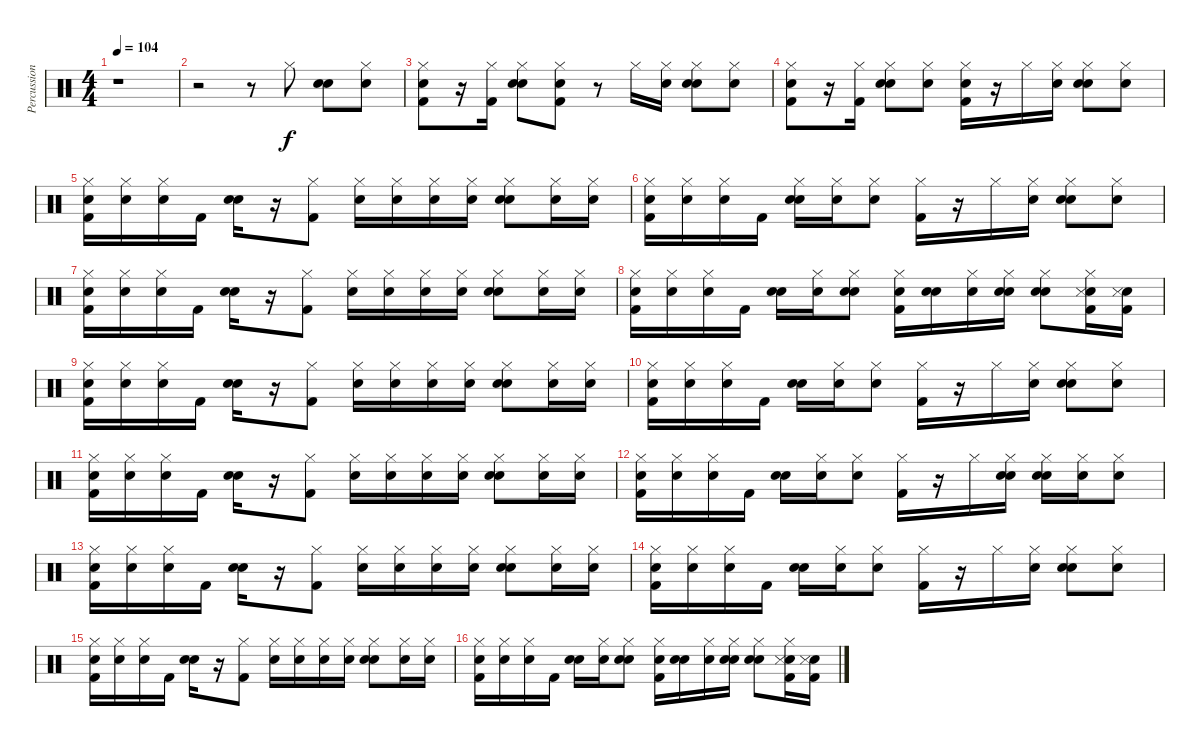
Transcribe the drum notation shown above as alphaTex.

\track ("Percussion" "Percussion") {instrument percussion}
\staff {score}
\articulation defaults
\ts (4 4)
\tempo 104
\clef neutral
\ks c
r.1{dy f} |
r.2 r.8 "Hi-Hat (closed)".8 ("Snare (hit)" "Electric Snare (hit)").8 ("Snare (hit)" "Hi-Hat (closed)").8 |
("Snare (hit)" "Hi-Hat (closed)" "Kick (hit) 2").8 r.16 ("Kick (hit) 2" "Hi-Hat (closed)").16 ("Snare (hit)" "Electric Snare (hit)" "Hi-Hat (closed)").8 ("Snare (hit)" "Kick (hit) 2" "Hi-Hat (closed)").8 r.8 "Hi-Hat (closed)".16 ("Snare (hit)" "Hi-Hat (closed)").16 ("Snare (hit)" "Electric Snare (hit)" "Hi-Hat (closed)").8 ("Snare (hit)" "Hi-Hat (closed)").8 |
("Snare (hit)" "Kick (hit) 2" "Hi-Hat (closed)").8 r.16 ("Hi-Hat (closed)" "Kick (hit) 2").16 ("Snare (hit)" "Hi-Hat (closed)" "Electric Snare (hit)").8 ("Snare (hit)" "Hi-Hat (closed)").8 ("Snare (hit)" "Hi-Hat (closed)" "Kick (hit) 2").16 r.16 "Hi-Hat (closed)".16 ("Snare (hit)" "Hi-Hat (closed)").16 ("Snare (hit)" "Hi-Hat (closed)" "Electric Snare (hit)").8 ("Snare (hit)" "Hi-Hat (closed)").8 |
("Snare (hit)" "Kick (hit) 2" "Hi-Hat (closed)").16 ("Snare (hit)" "Hi-Hat (closed)").16 ("Snare (hit)" "Hi-Hat (closed)").16 "Kick (hit) 2".16 ("Snare (hit)" "Electric Snare (hit)").16 r.16 ("Hi-Hat (closed)" "Kick (hit) 2").8 ("Snare (hit)" "Hi-Hat (closed)").16 ("Snare (hit)" "Hi-Hat (closed)").16 ("Snare (hit)" "Hi-Hat (closed)").16 ("Snare (hit)" "Hi-Hat (closed)").16 ("Snare (hit)" "Hi-Hat (closed)" "Electric Snare (hit)").8 ("Snare (hit)" "Hi-Hat (closed)").16 ("Snare (hit)" "Hi-Hat (closed)").16 |
("Snare (hit)" "Hi-Hat (closed)" "Kick (hit) 2").16 ("Snare (hit)" "Hi-Hat (closed)").16 ("Snare (hit)" "Hi-Hat (closed)").16 "Kick (hit) 2".16 ("Snare (hit)" "Hi-Hat (closed)" "Electric Snare (hit)").16 ("Snare (hit)" "Hi-Hat (closed)").16 ("Snare (hit)" "Hi-Hat (closed)").8 ("Kick (hit) 2" "Hi-Hat (closed)").16 r.16 "Hi-Hat (closed)".16 ("Snare (hit)" "Hi-Hat (closed)").16 ("Snare (hit)" "Electric Snare (hit)" "Hi-Hat (closed)").8 ("Snare (hit)" "Hi-Hat (closed)").8 |
("Snare (hit)" "Hi-Hat (closed)" "Kick (hit) 2").16 ("Snare (hit)" "Hi-Hat (closed)").16 ("Snare (hit)" "Hi-Hat (closed)").16 "Kick (hit) 2".16 ("Snare (hit)" "Electric Snare (hit)").16 r.16 ("Kick (hit) 2" "Hi-Hat (closed)").8 ("Snare (hit)" "Hi-Hat (closed)").16 ("Snare (hit)" "Hi-Hat (closed)").16 ("Snare (hit)" "Hi-Hat (closed)").16 ("Snare (hit)" "Hi-Hat (closed)").16 ("Snare (hit)" "Electric Snare (hit)" "Hi-Hat (closed)").8 ("Snare (hit)" "Hi-Hat (closed)").16 ("Snare (hit)" "Hi-Hat (closed)").16 |
("Snare (hit)" "Kick (hit) 2" "Hi-Hat (closed)").16 ("Snare (hit)" "Hi-Hat (closed)").16 ("Snare (hit)" "Hi-Hat (closed)").16 "Kick (hit) 2".16 ("Snare (hit)" "Electric Snare (hit)").16 ("Snare (hit)" "Hi-Hat (closed)").16 ("Snare (hit)" "Electric Snare (hit)" "Hi-Hat (closed)").8 ("Snare (hit)" "Hi-Hat (closed)" "Kick (hit) 2").16 ("Snare (hit)" "Electric Snare (hit)").16 ("Snare (hit)" "Hi-Hat (closed)").16 ("Snare (hit)" "Electric Snare (hit)" "Hi-Hat (closed)").16 ("Snare (hit)" "Hi-Hat (closed)" "Electric Snare (hit)").8 ("Snare (hit)" "Metronome (hit)" "Hi-Hat (closed)" "Kick (hit) 2").16 ("Snare (hit)" "Metronome (hit)" "Kick (hit) 2").16 |
("Snare (hit)" "Hi-Hat (closed)" "Kick (hit) 2").16 ("Snare (hit)" "Hi-Hat (closed)").16 ("Snare (hit)" "Hi-Hat (closed)").16 "Kick (hit) 2".16 ("Snare (hit)" "Electric Snare (hit)").16 r.16 ("Kick (hit) 2" "Hi-Hat (closed)").8 ("Snare (hit)" "Hi-Hat (closed)").16 ("Snare (hit)" "Hi-Hat (closed)").16 ("Snare (hit)" "Hi-Hat (closed)").16 ("Snare (hit)" "Hi-Hat (closed)").16 ("Snare (hit)" "Electric Snare (hit)" "Hi-Hat (closed)").8 ("Snare (hit)" "Hi-Hat (closed)").16 ("Snare (hit)" "Hi-Hat (closed)").16 |
("Snare (hit)" "Kick (hit) 2" "Hi-Hat (closed)").16 ("Snare (hit)" "Hi-Hat (closed)").16 ("Snare (hit)" "Hi-Hat (closed)").16 "Kick (hit) 2".16 ("Snare (hit)" "Electric Snare (hit)").16 ("Snare (hit)" "Hi-Hat (closed)").16 ("Snare (hit)" "Hi-Hat (closed)").8 ("Hi-Hat (closed)" "Kick (hit) 2").16 r.16 "Hi-Hat (closed)".16 ("Snare (hit)" "Hi-Hat (closed)").16 ("Snare (hit)" "Hi-Hat (closed)" "Electric Snare (hit)").8 ("Snare (hit)" "Hi-Hat (closed)").8 |
("Snare (hit)" "Hi-Hat (closed)" "Kick (hit) 2").16 ("Snare (hit)" "Hi-Hat (closed)").16 ("Snare (hit)" "Hi-Hat (closed)").16 "Kick (hit) 2".16 ("Snare (hit)" "Electric Snare (hit)").16 r.16 ("Kick (hit) 2" "Hi-Hat (closed)").8 ("Snare (hit)" "Hi-Hat (closed)").16 ("Snare (hit)" "Hi-Hat (closed)").16 ("Snare (hit)" "Hi-Hat (closed)").16 ("Snare (hit)" "Hi-Hat (closed)").16 ("Snare (hit)" "Electric Snare (hit)" "Hi-Hat (closed)").8 ("Snare (hit)" "Hi-Hat (closed)").16 ("Snare (hit)" "Hi-Hat (closed)").16 |
("Snare (hit)" "Hi-Hat (closed)" "Kick (hit) 2").16 ("Snare (hit)" "Hi-Hat (closed)").16 ("Snare (hit)" "Hi-Hat (closed)").16 "Kick (hit) 2".16 ("Snare (hit)" "Electric Snare (hit)").16 ("Snare (hit)" "Hi-Hat (closed)").16 ("Snare (hit)" "Hi-Hat (closed)").8 ("Kick (hit) 2" "Hi-Hat (closed)").16 r.16 "Hi-Hat (closed)".16 ("Snare (hit)" "Electric Snare (hit)" "Hi-Hat (closed)").16 ("Snare (hit)" "Electric Snare (hit)" "Hi-Hat (closed)").16 ("Snare (hit)" "Hi-Hat (closed)").16 ("Snare (hit)" "Hi-Hat (closed)").8 |
("Snare (hit)" "Kick (hit) 2" "Hi-Hat (closed)").16 ("Snare (hit)" "Hi-Hat (closed)").16 ("Snare (hit)" "Hi-Hat (closed)").16 "Kick (hit) 2".16 ("Snare (hit)" "Electric Snare (hit)").16 r.16 ("Hi-Hat (closed)" "Kick (hit) 2").8 ("Snare (hit)" "Hi-Hat (closed)").16 ("Snare (hit)" "Hi-Hat (closed)").16 ("Snare (hit)" "Hi-Hat (closed)").16 ("Snare (hit)" "Hi-Hat (closed)").16 ("Snare (hit)" "Hi-Hat (closed)" "Electric Snare (hit)").8 ("Snare (hit)" "Hi-Hat (closed)").16 ("Snare (hit)" "Hi-Hat (closed)").16 |
("Snare (hit)" "Hi-Hat (closed)" "Kick (hit) 2").16 ("Snare (hit)" "Hi-Hat (closed)").16 ("Snare (hit)" "Hi-Hat (closed)").16 "Kick (hit) 2".16 ("Snare (hit)" "Electric Snare (hit)").16 ("Snare (hit)" "Hi-Hat (closed)").16 ("Snare (hit)" "Hi-Hat (closed)").8 ("Kick (hit) 2" "Hi-Hat (closed)").16 r.16 "Hi-Hat (closed)".16 ("Snare (hit)" "Hi-Hat (closed)").16 ("Snare (hit)" "Electric Snare (hit)" "Hi-Hat (closed)").8 ("Snare (hit)" "Hi-Hat (closed)").8 |
("Snare (hit)" "Kick (hit) 2" "Hi-Hat (closed)").16 ("Snare (hit)" "Hi-Hat (closed)").16 ("Snare (hit)" "Hi-Hat (closed)").16 "Kick (hit) 2".16 ("Snare (hit)" "Electric Snare (hit)").16 r.16 ("Hi-Hat (closed)" "Kick (hit) 2").8 ("Snare (hit)" "Hi-Hat (closed)").16 ("Snare (hit)" "Hi-Hat (closed)").16 ("Snare (hit)" "Hi-Hat (closed)").16 ("Snare (hit)" "Hi-Hat (closed)").16 ("Snare (hit)" "Hi-Hat (closed)" "Electric Snare (hit)").8 ("Snare (hit)" "Hi-Hat (closed)").16 ("Snare (hit)" "Hi-Hat (closed)").16 |
("Snare (hit)" "Hi-Hat (closed)" "Kick (hit) 2").16 ("Snare (hit)" "Hi-Hat (closed)").16 ("Snare (hit)" "Hi-Hat (closed)").16 "Kick (hit) 2".16 ("Snare (hit)" "Electric Snare (hit)").16 ("Snare (hit)" "Hi-Hat (closed)").16 ("Snare (hit)" "Hi-Hat (closed)" "Electric Snare (hit)").8 ("Snare (hit)" "Kick (hit) 2" "Hi-Hat (closed)").16 ("Snare (hit)" "Electric Snare (hit)").16 ("Snare (hit)" "Hi-Hat (closed)").16 ("Snare (hit)" "Electric Snare (hit)" "Hi-Hat (closed)").16 ("Snare (hit)" "Electric Snare (hit)" "Hi-Hat (closed)").8 ("Snare (hit)" "Kick (hit) 2" "Hi-Hat (closed)" "Metronome (hit)").16 ("Snare (hit)" "Kick (hit) 2" "Metronome (hit)").16
